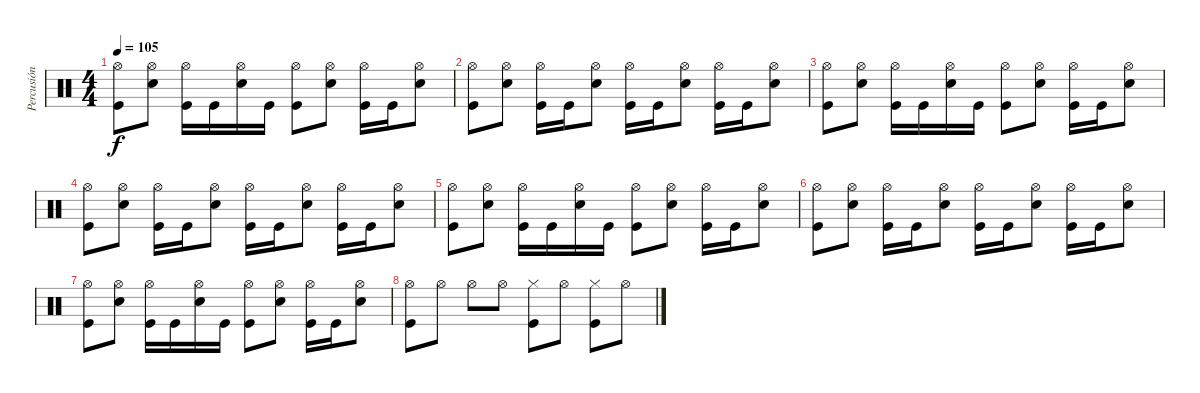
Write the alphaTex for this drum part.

\track ("Percusión" "Percusión") {instrument percussion}
\staff {score}
\articulation defaults
\ts (4 4)
\tempo 105
\clef neutral
\ks c
("Hi-Hat (open)" "Kick (hit)").8{dy f} ("Hi-Hat (open)" "Electric Snare (hit)").8 ("Hi-Hat (open)" "Kick (hit)").16 "Kick (hit)".16 ("Hi-Hat (open)" "Electric Snare (hit)").16 "Kick (hit)".16 ("Hi-Hat (open)" "Kick (hit)").8 ("Electric Snare (hit)" "Hi-Hat (open)").8 ("Hi-Hat (open)" "Kick (hit)").16 "Kick (hit)".16 ("Hi-Hat (open)" "Electric Snare (hit)").8 |
("Kick (hit)" "Hi-Hat (open)").8 ("Electric Snare (hit)" "Hi-Hat (open)").8 ("Kick (hit)" "Hi-Hat (open)").16 "Kick (hit)".16 ("Electric Snare (hit)" "Hi-Hat (open)").8 ("Kick (hit)" "Hi-Hat (open)").16 "Kick (hit)".16 ("Electric Snare (hit)" "Hi-Hat (open)").8 ("Kick (hit)" "Hi-Hat (open)").16 "Kick (hit)".16 ("Hi-Hat (open)" "Electric Snare (hit)").8 |
("Hi-Hat (open)" "Kick (hit)").8 ("Hi-Hat (open)" "Electric Snare (hit)").8 ("Hi-Hat (open)" "Kick (hit)").16 "Kick (hit)".16 ("Hi-Hat (open)" "Electric Snare (hit)").16 "Kick (hit)".16 ("Hi-Hat (open)" "Kick (hit)").8 ("Electric Snare (hit)" "Hi-Hat (open)").8 ("Hi-Hat (open)" "Kick (hit)").16 "Kick (hit)".16 ("Hi-Hat (open)" "Electric Snare (hit)").8 |
("Kick (hit)" "Hi-Hat (open)").8 ("Electric Snare (hit)" "Hi-Hat (open)").8 ("Kick (hit)" "Hi-Hat (open)").16 "Kick (hit)".16 ("Electric Snare (hit)" "Hi-Hat (open)").8 ("Kick (hit)" "Hi-Hat (open)").16 "Kick (hit)".16 ("Electric Snare (hit)" "Hi-Hat (open)").8 ("Kick (hit)" "Hi-Hat (open)").16 "Kick (hit)".16 ("Hi-Hat (open)" "Electric Snare (hit)").8 |
("Hi-Hat (open)" "Kick (hit)").8 ("Hi-Hat (open)" "Electric Snare (hit)").8 ("Hi-Hat (open)" "Kick (hit)").16 "Kick (hit)".16 ("Hi-Hat (open)" "Electric Snare (hit)").16 "Kick (hit)".16 ("Hi-Hat (open)" "Kick (hit)").8 ("Electric Snare (hit)" "Hi-Hat (open)").8 ("Hi-Hat (open)" "Kick (hit)").16 "Kick (hit)".16 ("Hi-Hat (open)" "Electric Snare (hit)").8 |
("Kick (hit)" "Hi-Hat (open)").8 ("Electric Snare (hit)" "Hi-Hat (open)").8 ("Kick (hit)" "Hi-Hat (open)").16 "Kick (hit)".16 ("Electric Snare (hit)" "Hi-Hat (open)").8 ("Kick (hit)" "Hi-Hat (open)").16 "Kick (hit)".16 ("Electric Snare (hit)" "Hi-Hat (open)").8 ("Kick (hit)" "Hi-Hat (open)").16 "Kick (hit)".16 ("Hi-Hat (open)" "Electric Snare (hit)").8 |
("Hi-Hat (open)" "Kick (hit)").8 ("Hi-Hat (open)" "Electric Snare (hit)").8 ("Hi-Hat (open)" "Kick (hit)").16 "Kick (hit)".16 ("Hi-Hat (open)" "Electric Snare (hit)").16 "Kick (hit)".16 ("Hi-Hat (open)" "Kick (hit)").8 ("Electric Snare (hit)" "Hi-Hat (open)").8 ("Hi-Hat (open)" "Kick (hit)").16 "Kick (hit)".16 ("Hi-Hat (open)" "Electric Snare (hit)").8 |
("Kick (hit)" "Hi-Hat (open)").8 "Hi-Hat (open)".8 "Hi-Hat (open)".8 "Hi-Hat (open)".8 ("Hi-Hat (closed)" "Kick (hit)").8 "Hi-Hat (open)".8 ("Kick (hit)" "Hi-Hat (closed)").8 "Hi-Hat (open)".8
